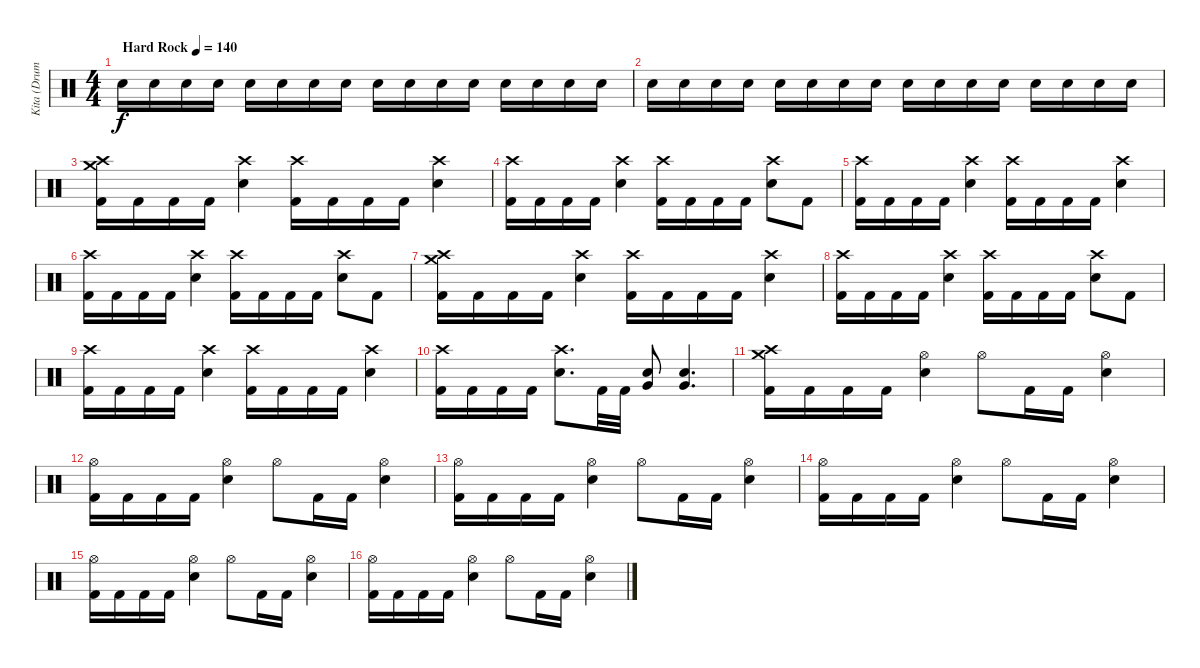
\track ("Kita (Drums)" "Kita (Drum") {instrument percussion}
\staff {score}
\articulation defaults
\ts (4 4)
\tempo (140 "Hard Rock")
\clef neutral
\ks c "Electric Snare (hit)".16{dy f} "Electric Snare (hit)".16 "Electric Snare (hit)".16 "Electric Snare (hit)".16 "Electric Snare (hit)".16 "Electric Snare (hit)".16 "Electric Snare (hit)".16 "Electric Snare (hit)".16 "Electric Snare (hit)".16 "Electric Snare (hit)".16 "Electric Snare (hit)".16 "Electric Snare (hit)".16 "Electric Snare (hit)".16 "Electric Snare (hit)".16 "Electric Snare (hit)".16 "Electric Snare (hit)".16
|
"Electric Snare (hit)".16 "Electric Snare (hit)".16 "Electric Snare (hit)".16 "Electric Snare (hit)".16 "Electric Snare (hit)".16 "Electric Snare (hit)".16 "Electric Snare (hit)".16 "Electric Snare (hit)".16 "Electric Snare (hit)".16 "Electric Snare (hit)".16 "Electric Snare (hit)".16 "Electric Snare (hit)".16 "Electric Snare (hit)".16 "Electric Snare (hit)".16 "Electric Snare (hit)".16 "Electric Snare (hit)".16 |
("Crash medium (hit)" "Crash high (hit)" "Kick (hit) 2").16 "Kick (hit) 2".16 "Kick (hit) 2".16 "Kick (hit) 2".16 ("Crash high (hit)" "Electric Snare (hit)").4 ("Crash high (hit)" "Kick (hit) 2").16 "Kick (hit) 2".16 "Kick (hit) 2".16 "Kick (hit) 2".16 ("Crash high (hit)" "Electric Snare (hit)").4 |
("Crash high (hit)" "Kick (hit) 2").16 "Kick (hit) 2".16 "Kick (hit) 2".16 "Kick (hit) 2".16 ("Crash high (hit)" "Electric Snare (hit)").4 ("Crash high (hit)" "Kick (hit) 2").16 "Kick (hit) 2".16 "Kick (hit) 2".16 "Kick (hit) 2".16 ("Crash high (hit)" "Electric Snare (hit)").8 "Kick (hit) 2".8 |
("Crash high (hit)" "Kick (hit) 2").16 "Kick (hit) 2".16 "Kick (hit) 2".16 "Kick (hit) 2".16 ("Crash high (hit)" "Electric Snare (hit)").4 ("Crash high (hit)" "Kick (hit) 2").16 "Kick (hit) 2".16 "Kick (hit) 2".16 "Kick (hit) 2".16 ("Crash high (hit)" "Electric Snare (hit)").4 |
("Crash high (hit)" "Kick (hit) 2").16 "Kick (hit) 2".16 "Kick (hit) 2".16 "Kick (hit) 2".16 ("Crash high (hit)" "Electric Snare (hit)").4 ("Crash high (hit)" "Kick (hit) 2").16 "Kick (hit) 2".16 "Kick (hit) 2".16 "Kick (hit) 2".16 ("Crash high (hit)" "Electric Snare (hit)").8 "Kick (hit) 2".8 |
("Crash medium (hit)" "Crash high (hit)" "Kick (hit) 2").16 "Kick (hit) 2".16 "Kick (hit) 2".16 "Kick (hit) 2".16 ("Crash high (hit)" "Electric Snare (hit)").4 ("Crash high (hit)" "Kick (hit) 2").16 "Kick (hit) 2".16 "Kick (hit) 2".16 "Kick (hit) 2".16 ("Crash high (hit)" "Electric Snare (hit)").4 |
("Crash high (hit)" "Kick (hit) 2").16 "Kick (hit) 2".16 "Kick (hit) 2".16 "Kick (hit) 2".16 ("Crash high (hit)" "Electric Snare (hit)").4 ("Crash high (hit)" "Kick (hit) 2").16 "Kick (hit) 2".16 "Kick (hit) 2".16 "Kick (hit) 2".16 ("Crash high (hit)" "Electric Snare (hit)").8 "Kick (hit) 2".8 |
("Crash high (hit)" "Kick (hit) 2").16 "Kick (hit) 2".16 "Kick (hit) 2".16 "Kick (hit) 2".16 ("Crash high (hit)" "Electric Snare (hit)").4 ("Crash high (hit)" "Kick (hit) 2").16 "Kick (hit) 2".16 "Kick (hit) 2".16 "Kick (hit) 2".16 ("Crash high (hit)" "Electric Snare (hit)").4 |
("Crash high (hit)" "Kick (hit) 2").16 "Kick (hit) 2".16 "Kick (hit) 2".16 "Kick (hit) 2".16 ("Crash high (hit)" "Electric Snare (hit)").8{d} "Kick (hit) 2".32 "Kick (hit) 2".32 ("Very Low Tom (hit)" "Electric Snare (hit)").8 ("Very Low Tom (hit)" "Electric Snare (hit)").4{d} |
("Crash medium (hit)" "Crash high (hit)" "Kick (hit) 2").16 "Kick (hit) 2".16 "Kick (hit) 2".16 "Kick (hit) 2".16 ("Hi-Hat (open)" "Electric Snare (hit)").4 "Hi-Hat (open)".8 "Kick (hit) 2".16 "Kick (hit) 2".16 ("Hi-Hat (open)" "Electric Snare (hit)").4 |
("Hi-Hat (open)" "Kick (hit) 2").16 "Kick (hit) 2".16 "Kick (hit) 2".16 "Kick (hit) 2".16 ("Hi-Hat (open)" "Electric Snare (hit)").4 "Hi-Hat (open)".8 "Kick (hit) 2".16 "Kick (hit) 2".16 ("Hi-Hat (open)" "Electric Snare (hit)").4 |
("Hi-Hat (open)" "Kick (hit) 2").16 "Kick (hit) 2".16 "Kick (hit) 2".16 "Kick (hit) 2".16 ("Hi-Hat (open)" "Electric Snare (hit)").4 "Hi-Hat (open)".8 "Kick (hit) 2".16 "Kick (hit) 2".16 ("Hi-Hat (open)" "Electric Snare (hit)").4 |
("Hi-Hat (open)" "Kick (hit) 2").16 "Kick (hit) 2".16 "Kick (hit) 2".16 "Kick (hit) 2".16 ("Hi-Hat (open)" "Electric Snare (hit)").4 "Hi-Hat (open)".8 "Kick (hit) 2".16 "Kick (hit) 2".16 ("Hi-Hat (open)" "Electric Snare (hit)").4 |
("Hi-Hat (open)" "Kick (hit) 2").16 "Kick (hit) 2".16 "Kick (hit) 2".16 "Kick (hit) 2".16 ("Hi-Hat (open)" "Electric Snare (hit)").4 "Hi-Hat (open)".8 "Kick (hit) 2".16 "Kick (hit) 2".16 ("Hi-Hat (open)" "Electric Snare (hit)").4 |
("Hi-Hat (open)" "Kick (hit) 2").16 "Kick (hit) 2".16 "Kick (hit) 2".16 "Kick (hit) 2".16 ("Hi-Hat (open)" "Electric Snare (hit)").4 "Hi-Hat (open)".8 "Kick (hit) 2".16 "Kick (hit) 2".16 ("Hi-Hat (open)" "Electric Snare (hit)").4
